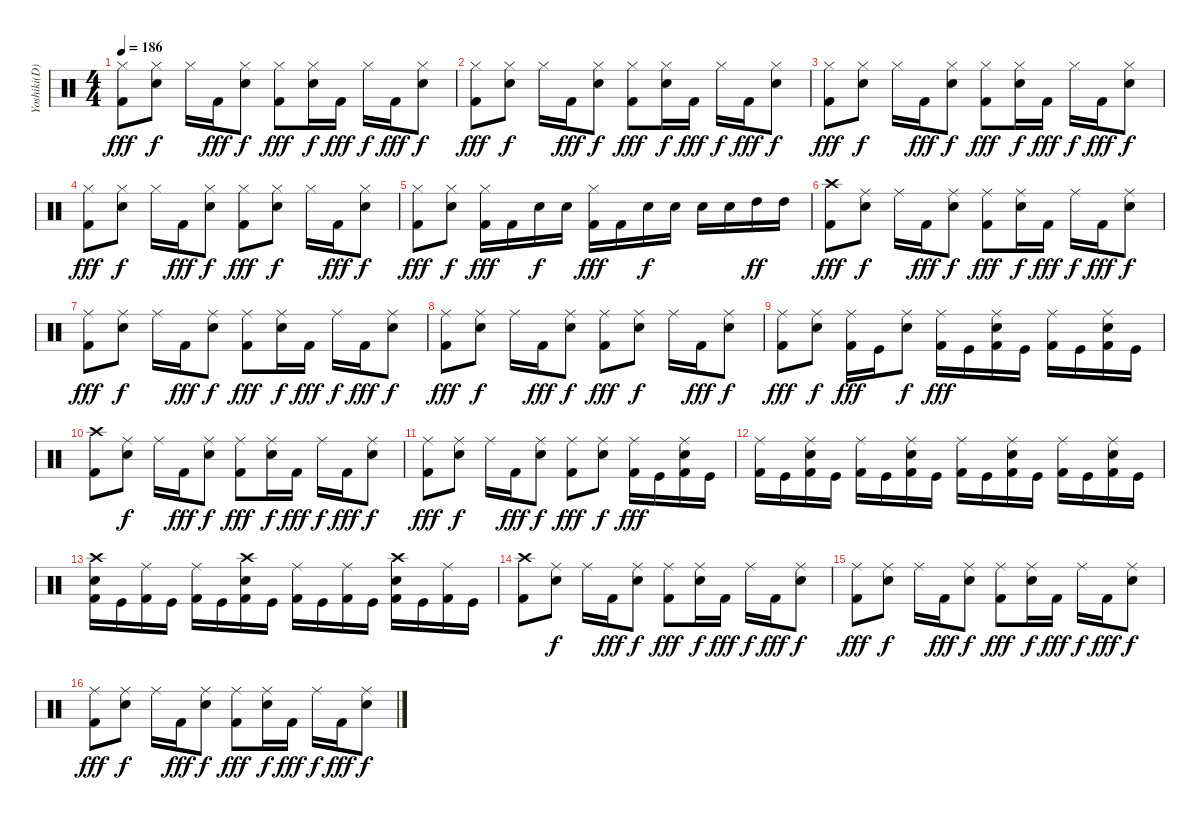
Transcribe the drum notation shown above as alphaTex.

\track ("Yoshiki(D)" "Yoshiki(D)") {instrument percussion}
\staff {score}
\articulation defaults
\ts (4 4)
\tempo 186
\clef neutral
\ks c
("Hi-Hat (closed)" "Kick (hit) 2").8{dy fff} ("Hi-Hat (closed)" "Electric Snare (hit)").8{dy f} "Hi-Hat (closed)".16 "Kick (hit) 2".16{dy fff} ("Hi-Hat (closed)" "Electric Snare (hit)").8{dy f} ("Hi-Hat (closed)" "Kick (hit) 2").8{dy fff} ("Hi-Hat (closed)" "Electric Snare (hit)").16{dy f} "Kick (hit) 2".16{dy fff} "Hi-Hat (closed)".16{dy f} "Kick (hit) 2".16{dy fff} ("Hi-Hat (closed)" "Electric Snare (hit)").8{dy f} |
("Hi-Hat (closed)" "Kick (hit) 2").8{dy fff} ("Hi-Hat (closed)" "Electric Snare (hit)").8{dy f} "Hi-Hat (closed)".16 "Kick (hit) 2".16{dy fff} ("Hi-Hat (closed)" "Electric Snare (hit)").8{dy f} ("Hi-Hat (closed)" "Kick (hit) 2").8{dy fff} ("Hi-Hat (closed)" "Electric Snare (hit)").16{dy f} "Kick (hit) 2".16{dy fff} "Hi-Hat (closed)".16{dy f} "Kick (hit) 2".16{dy fff} ("Hi-Hat (closed)" "Electric Snare (hit)").8{dy f} |
("Hi-Hat (closed)" "Kick (hit) 2").8{dy fff} ("Hi-Hat (closed)" "Electric Snare (hit)").8{dy f} "Hi-Hat (closed)".16 "Kick (hit) 2".16{dy fff} ("Hi-Hat (closed)" "Electric Snare (hit)").8{dy f} ("Hi-Hat (closed)" "Kick (hit) 2").8{dy fff} ("Hi-Hat (closed)" "Electric Snare (hit)").16{dy f} "Kick (hit) 2".16{dy fff} "Hi-Hat (closed)".16{dy f} "Kick (hit) 2".16{dy fff} ("Hi-Hat (closed)" "Electric Snare (hit)").8{dy f} |
("Hi-Hat (closed)" "Kick (hit) 2").8{dy fff} ("Hi-Hat (closed)" "Electric Snare (hit)").8{dy f} "Hi-Hat (closed)".16 "Kick (hit) 2".16{dy fff} ("Hi-Hat (closed)" "Electric Snare (hit)").8{dy f} ("Hi-Hat (closed)" "Kick (hit) 2").8{dy fff} ("Hi-Hat (closed)" "Electric Snare (hit)").8{dy f} "Hi-Hat (closed)".16 "Kick (hit) 2".16{dy fff} ("Hi-Hat (closed)" "Electric Snare (hit)").8{dy f} |
("Hi-Hat (closed)" "Kick (hit) 2").8{dy fff} ("Hi-Hat (closed)" "Electric Snare (hit)").8{dy f} ("Hi-Hat (closed)" "Kick (hit) 2").16{dy fff} "Kick (hit) 2".16 "Electric Snare (hit)".16{dy f} "Electric Snare (hit)".16 ("Hi-Hat (closed)" "Kick (hit) 2").16{dy fff} "Kick (hit) 2".16 "Electric Snare (hit)".16{dy f} "Electric Snare (hit)".16 "Electric Snare (hit)".16 "Electric Snare (hit)".16 "High Tom (hit)".16{dy ff} "High Tom (hit)".16 |
("Crash high (hit)" "Kick (hit) 2").8{dy fff} ("Ride (middle)" "Electric Snare (hit)").8{dy f} "Ride (middle)".16 "Kick (hit) 2".16{dy fff} ("Ride (middle)" "Electric Snare (hit)").8{dy f} ("Ride (middle)" "Kick (hit) 2").8{dy fff} ("Ride (middle)" "Electric Snare (hit)").16{dy f} "Kick (hit) 2".16{dy fff} "Ride (middle)".16{dy f} "Kick (hit) 2".16{dy fff} ("Ride (middle)" "Electric Snare (hit)").8{dy f} |
("Ride (middle)" "Kick (hit) 2").8{dy fff} ("Ride (middle)" "Electric Snare (hit)").8{dy f} "Ride (middle)".16 "Kick (hit) 2".16{dy fff} ("Ride (middle)" "Electric Snare (hit)").8{dy f} ("Ride (middle)" "Kick (hit) 2").8{dy fff} ("Ride (middle)" "Electric Snare (hit)").16{dy f} "Kick (hit) 2".16{dy fff} "Ride (middle)".16{dy f} "Kick (hit) 2".16{dy fff} ("Ride (middle)" "Electric Snare (hit)").8{dy f} |
("Ride (middle)" "Kick (hit) 2").8{dy fff} ("Ride (middle)" "Electric Snare (hit)").8{dy f} "Ride (middle)".16 "Kick (hit) 2".16{dy fff} ("Ride (middle)" "Electric Snare (hit)").8{dy f} ("Ride (middle)" "Kick (hit) 2").8{dy fff} ("Ride (middle)" "Electric Snare (hit)").8{dy f} "Ride (middle)".16 "Kick (hit) 2".16{dy fff} ("Ride (middle)" "Electric Snare (hit)").8{dy f} |
("Ride (middle)" "Kick (hit) 2").8{dy fff} ("Ride (middle)" "Electric Snare (hit)").8{dy f} ("Ride (middle)" "Kick (hit) 2").16{dy fff} "Kick (hit)".16 ("Ride (middle)" "Electric Snare (hit)").8{dy f} ("Ride (middle)" "Kick (hit) 2").16{dy fff} "Kick (hit)".16 ("Ride (middle)" "Electric Snare (hit)" "Kick (hit) 2").16 "Kick (hit)".16 ("Ride (middle)" "Kick (hit) 2").16 "Kick (hit)".16 ("Ride (middle)" "Electric Snare (hit)" "Kick (hit) 2").16 "Kick (hit)".16 |
("Crash high (hit)" "Kick (hit) 2").8 ("Ride (middle)" "Electric Snare (hit)").8{dy f} "Ride (middle)".16 "Kick (hit) 2".16{dy fff} ("Ride (middle)" "Electric Snare (hit)").8{dy f} ("Ride (middle)" "Kick (hit) 2").8{dy fff} ("Ride (middle)" "Electric Snare (hit)").16{dy f} "Kick (hit) 2".16{dy fff} "Ride (middle)".16{dy f} "Kick (hit) 2".16{dy fff} ("Ride (middle)" "Electric Snare (hit)").8{dy f} |
("Ride (middle)" "Kick (hit) 2").8{dy fff} ("Ride (middle)" "Electric Snare (hit)").8{dy f} "Ride (middle)".16 "Kick (hit) 2".16{dy fff} ("Ride (middle)" "Electric Snare (hit)").8{dy f} ("Ride (middle)" "Kick (hit) 2").8{dy fff} ("Ride (middle)" "Electric Snare (hit)").8{dy f} ("Ride (middle)" "Kick (hit) 2").16{dy fff} "Kick (hit)".16 ("Ride (middle)" "Electric Snare (hit)" "Kick (hit) 2").16 "Kick (hit)".16 |
("Ride (middle)" "Kick (hit) 2").16 "Kick (hit)".16 ("Ride (middle)" "Electric Snare (hit)" "Kick (hit) 2").16 "Kick (hit)".16 ("Ride (middle)" "Kick (hit) 2").16 "Kick (hit)".16 ("Ride (middle)" "Electric Snare (hit)" "Kick (hit) 2").16 "Kick (hit)".16 ("Ride (middle)" "Kick (hit) 2").16 "Kick (hit)".16 ("Ride (middle)" "Electric Snare (hit)" "Kick (hit) 2").16 "Kick (hit)".16 ("Ride (middle)" "Kick (hit) 2").16 "Kick (hit)".16 ("Ride (middle)" "Electric Snare (hit)" "Kick (hit) 2").16 "Kick (hit)".16 |
("Crash high (hit)" "Electric Snare (hit)" "Kick (hit) 2").16 "Kick (hit)".16 ("Ride (middle)" "Kick (hit) 2").16 "Kick (hit)".16 ("Ride (middle)" "Kick (hit) 2").16 "Kick (hit)".16 ("Crash high (hit)" "Electric Snare (hit)" "Kick (hit) 2").16 "Kick (hit)".16 ("Ride (middle)" "Kick (hit) 2").16 "Kick (hit)".16 ("Ride (middle)" "Kick (hit) 2").16 "Kick (hit)".16 ("Crash high (hit)" "Electric Snare (hit)" "Kick (hit) 2").16 "Kick (hit)".16 ("Ride (middle)" "Kick (hit) 2").16 "Kick (hit)".16 |
("Crash high (hit)" "Kick (hit) 2").8 ("Ride (middle)" "Electric Snare (hit)").8{dy f} "Ride (middle)".16 "Kick (hit) 2".16{dy fff} ("Ride (middle)" "Electric Snare (hit)").8{dy f} ("Ride (middle)" "Kick (hit) 2").8{dy fff} ("Ride (middle)" "Electric Snare (hit)").16{dy f} "Kick (hit) 2".16{dy fff} "Ride (middle)".16{dy f} "Kick (hit) 2".16{dy fff} ("Ride (middle)" "Electric Snare (hit)").8{dy f} |
("Ride (middle)" "Kick (hit) 2").8{dy fff} ("Ride (middle)" "Electric Snare (hit)").8{dy f} "Ride (middle)".16 "Kick (hit) 2".16{dy fff} ("Ride (middle)" "Electric Snare (hit)").8{dy f} ("Ride (middle)" "Kick (hit) 2").8{dy fff} ("Ride (middle)" "Electric Snare (hit)").16{dy f} "Kick (hit) 2".16{dy fff} "Ride (middle)".16{dy f} "Kick (hit) 2".16{dy fff} ("Ride (middle)" "Electric Snare (hit)").8{dy f} |
("Ride (middle)" "Kick (hit) 2").8{dy fff} ("Ride (middle)" "Electric Snare (hit)").8{dy f} "Ride (middle)".16 "Kick (hit) 2".16{dy fff} ("Ride (middle)" "Electric Snare (hit)").8{dy f} ("Ride (middle)" "Kick (hit) 2").8{dy fff} ("Ride (middle)" "Electric Snare (hit)").16{dy f} "Kick (hit) 2".16{dy fff} "Ride (middle)".16{dy f} "Kick (hit) 2".16{dy fff} ("Ride (middle)" "Electric Snare (hit)").8{dy f}
